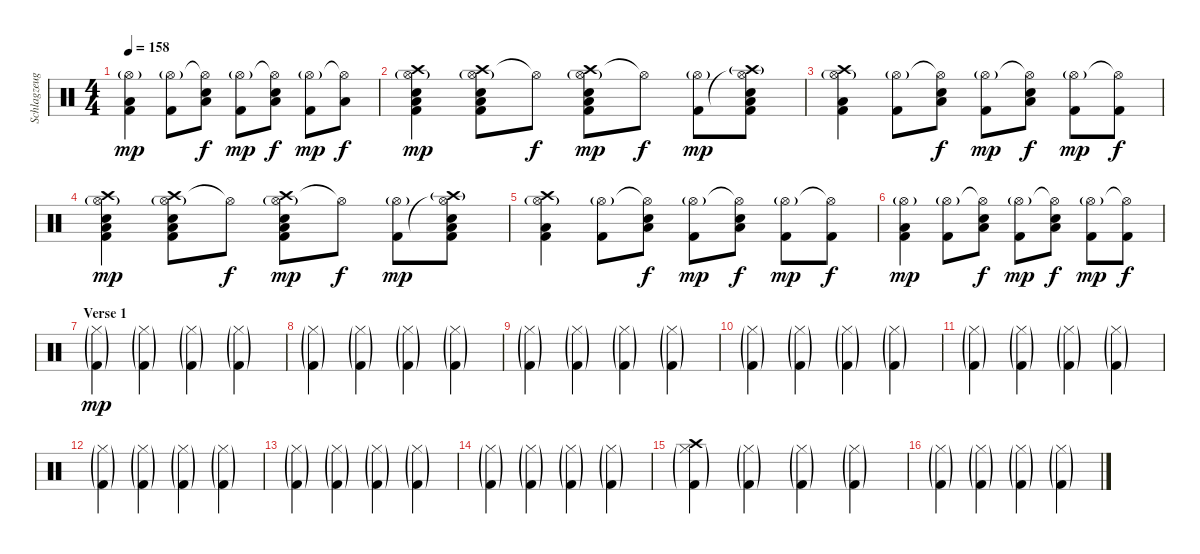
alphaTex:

\track ("Schlagzeug" "Schlagzeug") {instrument percussion}
\staff {score}
\articulation defaults
\ts (4 4)
\tempo 158
\clef neutral
\ks c
("Hi-Hat (open)"{g} "Low Floor Tom (hit)" "Kick (hit) 2").4{dy mp} ("Hi-Hat (open)"{g} "Kick (hit) 2").8 ("Hi-Hat (open)"{t} "Low Floor Tom (hit)" "Electric Snare (hit)").8{dy f} ("Hi-Hat (open)"{g} "Kick (hit) 2").8{dy mp} ("Hi-Hat (open)"{t} "Low Floor Tom (hit)" "Electric Snare (hit)").8{dy f} ("Hi-Hat (open)"{g} "Kick (hit) 2").8{dy mp} ("Hi-Hat (open)"{t} "Low Floor Tom (hit)").8{dy f} |
("Crash high (hit)" "Hi-Hat (open)"{g} "Low Floor Tom (hit)" "Electric Snare (hit)" "Kick (hit) 2").4{dy mp} ("Crash high (hit)" "Hi-Hat (open)"{g} "Low Floor Tom (hit)" "Electric Snare (hit)" "Kick (hit) 2").8 "Hi-Hat (open)"{t}.8{dy f} ("Crash high (hit)" "Hi-Hat (open)"{g} "Low Floor Tom (hit)" "Electric Snare (hit)" "Kick (hit) 2").8{dy mp} "Hi-Hat (open)"{t}.8{dy f} ("Hi-Hat (open)"{g} "Kick (hit) 2").8{dy mp} ("Crash high (hit)"{g} "Hi-Hat (open)"{t} "Low Floor Tom (hit)" "Electric Snare (hit)" "Kick (hit) 2").8 |
("Crash high (hit)" "Hi-Hat (open)"{g} "Low Floor Tom (hit)" "Kick (hit) 2").4 ("Hi-Hat (open)"{g} "Kick (hit) 2").8 ("Hi-Hat (open)"{t} "Low Floor Tom (hit)" "Electric Snare (hit)").8{dy f} ("Hi-Hat (open)"{g} "Kick (hit) 2").8{dy mp} ("Hi-Hat (open)"{t} "Low Floor Tom (hit)" "Electric Snare (hit)").8{dy f} ("Hi-Hat (open)"{g} "Kick (hit) 2").8{dy mp} ("Hi-Hat (open)"{t} "Kick (hit) 2").8{dy f} |
("Crash high (hit)" "Hi-Hat (open)"{g} "Low Floor Tom (hit)" "Electric Snare (hit)" "Kick (hit) 2").4{dy mp} ("Crash high (hit)" "Hi-Hat (open)"{g} "Low Floor Tom (hit)" "Electric Snare (hit)" "Kick (hit) 2").8 "Hi-Hat (open)"{t}.8{dy f} ("Crash high (hit)" "Hi-Hat (open)"{g} "Low Floor Tom (hit)" "Electric Snare (hit)" "Kick (hit) 2").8{dy mp} "Hi-Hat (open)"{t}.8{dy f} ("Hi-Hat (open)"{g} "Kick (hit) 2").8{dy mp} ("Crash high (hit)"{g} "Hi-Hat (open)"{t} "Low Floor Tom (hit)" "Electric Snare (hit)" "Kick (hit) 2").8 |
("Crash high (hit)" "Hi-Hat (open)"{g} "Low Floor Tom (hit)" "Kick (hit) 2").4 ("Hi-Hat (open)"{g} "Kick (hit) 2").8 ("Hi-Hat (open)"{t} "Low Floor Tom (hit)" "Electric Snare (hit)").8{dy f} ("Hi-Hat (open)"{g} "Kick (hit) 2").8{dy mp} ("Hi-Hat (open)"{t} "Low Floor Tom (hit)" "Electric Snare (hit)").8{dy f} ("Hi-Hat (open)"{g} "Kick (hit) 2").8{dy mp} ("Hi-Hat (open)"{t} "Kick (hit) 2").8{dy f} |
("Hi-Hat (open)"{g} "Low Floor Tom (hit)" "Kick (hit) 2").4{dy mp} ("Hi-Hat (open)"{g} "Kick (hit) 2").8 ("Hi-Hat (open)"{t} "Low Floor Tom (hit)" "Electric Snare (hit)").8{dy f} ("Hi-Hat (open)"{g} "Kick (hit) 2").8{dy mp} ("Hi-Hat (open)"{t} "Low Floor Tom (hit)" "Electric Snare (hit)").8{dy f} ("Hi-Hat (open)"{g} "Kick (hit) 2").8{dy mp} ("Hi-Hat (open)"{t} "Kick (hit) 2").8{dy f} |
\section ("" "Verse 1")
("Hi-Hat (closed)"{g} "Kick (hit) 2"{g}).4{dy mp} ("Hi-Hat (closed)"{g} "Kick (hit) 2"{g}).4 ("Hi-Hat (closed)"{g} "Kick (hit) 2"{g}).4 ("Hi-Hat (closed)"{g} "Kick (hit) 2"{g}).4 |
("Hi-Hat (closed)"{g} "Kick (hit) 2"{g}).4 ("Hi-Hat (closed)"{g} "Kick (hit) 2"{g}).4 ("Hi-Hat (closed)"{g} "Kick (hit) 2"{g}).4 ("Hi-Hat (closed)"{g} "Kick (hit) 2"{g}).4 |
("Hi-Hat (closed)"{g} "Kick (hit) 2"{g}).4 ("Hi-Hat (closed)"{g} "Kick (hit) 2"{g}).4 ("Hi-Hat (closed)"{g} "Kick (hit) 2"{g}).4 ("Hi-Hat (closed)"{g} "Kick (hit) 2"{g}).4 |
("Hi-Hat (closed)"{g} "Kick (hit) 2"{g}).4 ("Hi-Hat (closed)"{g} "Kick (hit) 2"{g}).4 ("Hi-Hat (closed)"{g} "Kick (hit) 2"{g}).4 ("Hi-Hat (closed)"{g} "Kick (hit) 2"{g}).4 |
("Hi-Hat (closed)"{g} "Kick (hit) 2"{g}).4 ("Hi-Hat (closed)"{g} "Kick (hit) 2"{g}).4 ("Hi-Hat (closed)"{g} "Kick (hit) 2"{g}).4 ("Hi-Hat (closed)"{g} "Kick (hit) 2"{g}).4 |
("Hi-Hat (closed)"{g} "Kick (hit) 2"{g}).4 ("Hi-Hat (closed)"{g} "Kick (hit) 2"{g}).4 ("Hi-Hat (closed)"{g} "Kick (hit) 2"{g}).4 ("Hi-Hat (closed)"{g} "Kick (hit) 2"{g}).4 |
("Hi-Hat (closed)"{g} "Kick (hit) 2"{g}).4 ("Hi-Hat (closed)"{g} "Kick (hit) 2"{g}).4 ("Hi-Hat (closed)"{g} "Kick (hit) 2"{g}).4 ("Hi-Hat (closed)"{g} "Kick (hit) 2"{g}).4 |
("Hi-Hat (closed)"{g} "Kick (hit) 2"{g}).4 ("Hi-Hat (closed)"{g} "Kick (hit) 2"{g}).4 ("Hi-Hat (closed)"{g} "Kick (hit) 2"{g}).4 ("Hi-Hat (closed)"{g} "Kick (hit) 2"{g}).4 |
("Crash high (hit)" "Hi-Hat (closed)"{g} "Kick (hit) 2"{g}).4 ("Hi-Hat (closed)"{g} "Kick (hit) 2"{g}).4 ("Hi-Hat (closed)"{g} "Kick (hit) 2"{g}).4 ("Hi-Hat (closed)"{g} "Kick (hit) 2"{g}).4 |
("Hi-Hat (closed)"{g} "Kick (hit) 2"{g}).4 ("Hi-Hat (closed)"{g} "Kick (hit) 2"{g}).4 ("Hi-Hat (closed)"{g} "Kick (hit) 2"{g}).4 ("Hi-Hat (closed)"{g} "Kick (hit) 2"{g}).4
